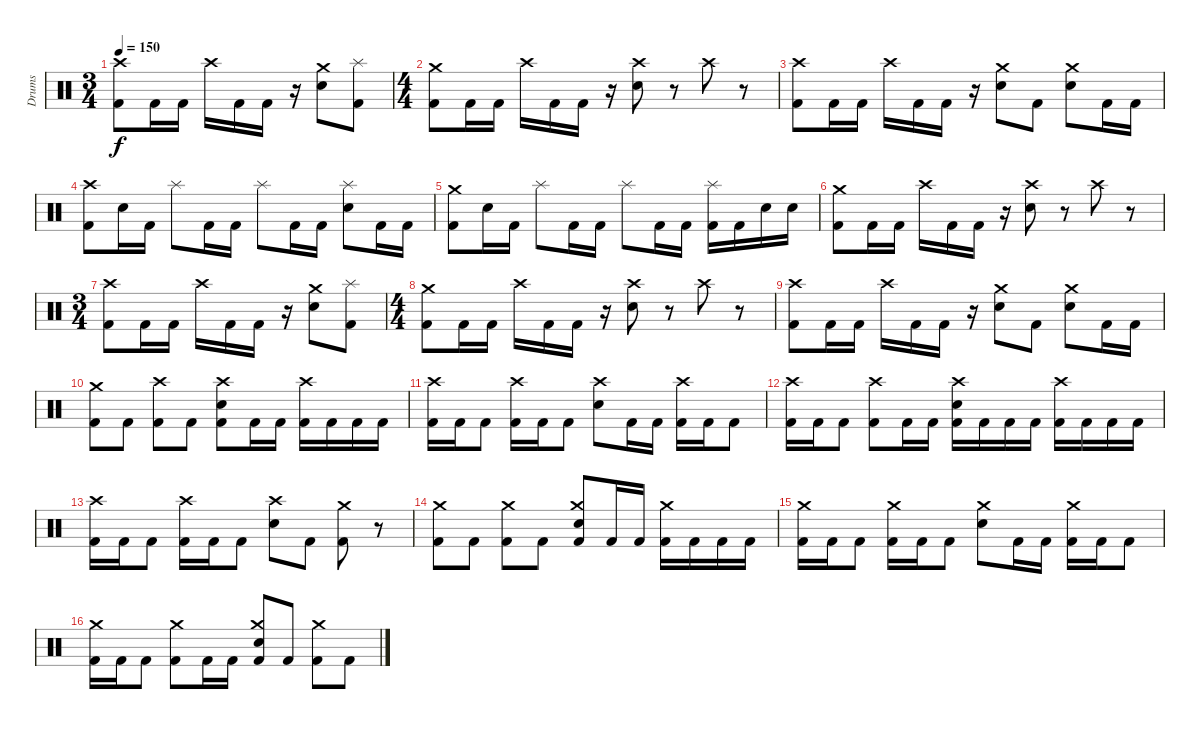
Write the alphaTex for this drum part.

\track ("Drums" "Drums") {instrument percussion}
\staff {score}
\articulation defaults
\ts (3 4)
\tempo 150
\clef neutral
\ks c
("Crash high (hit)" "Kick (hit) 2").8{dy f} "Kick (hit) 2".16 "Kick (hit) 2".16 "Crash high (hit)".16 "Kick (hit) 2".16 "Kick (hit) 2".16 r.16 ("Crash medium (hit)" "Electric Snare (hit)").8 ("Splash (hit)" "Kick (hit) 2").8 |
\ts (4 4)
("Crash medium (hit)" "Kick (hit) 2").8 "Kick (hit) 2".16 "Kick (hit) 2".16 "Crash high (hit)".16 "Kick (hit) 2".16 "Kick (hit) 2".16 r.16 ("Crash high (hit)" "Electric Snare (hit)").8 r.8 "Crash high (hit)".8 r.8 |
("Crash high (hit)" "Kick (hit) 2").8 "Kick (hit) 2".16 "Kick (hit) 2".16 "Crash high (hit)".16 "Kick (hit) 2".16 "Kick (hit) 2".16 r.16 ("Crash medium (hit)" "Electric Snare (hit)").8 "Kick (hit) 2".8 ("Crash medium (hit)" "Electric Snare (hit)").8 "Kick (hit) 2".16 "Kick (hit) 2".16 |
("Crash high (hit)" "Kick (hit) 2").8 "Electric Snare (hit)".16 "Kick (hit) 2".16 "Splash (hit)".8 "Kick (hit) 2".16 "Kick (hit) 2".16 "Splash (hit)".8 "Kick (hit) 2".16 "Kick (hit) 2".16 ("Splash (hit)" "Electric Snare (hit)").8 "Kick (hit) 2".16 "Kick (hit) 2".16 |
("Crash medium (hit)" "Kick (hit) 2").8 "Electric Snare (hit)".16 "Kick (hit) 2".16 "Splash (hit)".8 "Kick (hit) 2".16 "Kick (hit) 2".16 "Splash (hit)".8 "Kick (hit) 2".16 "Kick (hit) 2".16 ("Splash (hit)" "Kick (hit) 2").16 "Kick (hit) 2".16 "Electric Snare (hit)".16 "Electric Snare (hit)".16 |
("Crash medium (hit)" "Kick (hit) 2").8 "Kick (hit) 2".16 "Kick (hit) 2".16 "Crash high (hit)".16 "Kick (hit) 2".16 "Kick (hit) 2".16 r.16 ("Crash high (hit)" "Electric Snare (hit)").8 r.8 "Crash high (hit)".8 r.8 |
\ts (3 4)
("Crash high (hit)" "Kick (hit) 2").8 "Kick (hit) 2".16 "Kick (hit) 2".16 "Crash high (hit)".16 "Kick (hit) 2".16 "Kick (hit) 2".16 r.16 ("Crash medium (hit)" "Electric Snare (hit)").8 ("Splash (hit)" "Kick (hit) 2").8 |
\ts (4 4)
("Crash medium (hit)" "Kick (hit) 2").8 "Kick (hit) 2".16 "Kick (hit) 2".16 "Crash high (hit)".16 "Kick (hit) 2".16 "Kick (hit) 2".16 r.16 ("Crash high (hit)" "Electric Snare (hit)").8 r.8 "Crash high (hit)".8 r.8 |
("Crash high (hit)" "Kick (hit) 2").8 "Kick (hit) 2".16 "Kick (hit) 2".16 "Crash high (hit)".16 "Kick (hit) 2".16 "Kick (hit) 2".16 r.16 ("Crash medium (hit)" "Electric Snare (hit)").8 "Kick (hit) 2".8 ("Crash medium (hit)" "Electric Snare (hit)").8 "Kick (hit) 2".16 "Kick (hit) 2".16 |
("Crash medium (hit)" "Kick (hit) 2").8 "Kick (hit) 2".8 ("Crash high (hit)" "Kick (hit) 2").8 "Kick (hit) 2".8 ("Crash high (hit)" "Electric Snare (hit)" "Kick (hit) 2").8 "Kick (hit) 2".16 "Kick (hit) 2".16 ("Crash high (hit)" "Kick (hit) 2").16 "Kick (hit) 2".16 "Kick (hit) 2".16 "Kick (hit) 2".16 |
("Crash high (hit)" "Kick (hit) 2").16 "Kick (hit) 2".16 "Kick (hit) 2".8 ("Crash high (hit)" "Kick (hit) 2").16 "Kick (hit) 2".16 "Kick (hit) 2".8 ("Crash high (hit)" "Electric Snare (hit)").8 "Kick (hit) 2".16 "Kick (hit) 2".16 ("Crash high (hit)" "Kick (hit) 2").16 "Kick (hit) 2".16 "Kick (hit) 2".8 |
("Crash high (hit)" "Kick (hit) 2").16 "Kick (hit) 2".16 "Kick (hit) 2".8 ("Crash high (hit)" "Kick (hit) 2").8 "Kick (hit) 2".16 "Kick (hit) 2".16 ("Crash high (hit)" "Electric Snare (hit)" "Kick (hit) 2").16 "Kick (hit) 2".16 "Kick (hit) 2".16 "Kick (hit) 2".16 ("Crash high (hit)" "Kick (hit) 2").16 "Kick (hit) 2".16 "Kick (hit) 2".16 "Kick (hit) 2".16 |
("Crash high (hit)" "Kick (hit) 2").16 "Kick (hit) 2".16 "Kick (hit) 2".8 ("Crash high (hit)" "Kick (hit) 2").16 "Kick (hit) 2".16 "Kick (hit) 2".8 ("Crash high (hit)" "Electric Snare (hit)").8 "Kick (hit) 2".8 ("Crash medium (hit)" "Kick (hit) 2").8 r.8 |
("Crash medium (hit)" "Kick (hit) 2").8 "Kick (hit) 2".8 ("Crash medium (hit)" "Kick (hit) 2").8 "Kick (hit) 2".8 ("Crash medium (hit)" "Electric Snare (hit)" "Kick (hit) 2").8 "Kick (hit) 2".16 "Kick (hit) 2".16 ("Crash medium (hit)" "Kick (hit) 2").16 "Kick (hit) 2".16 "Kick (hit) 2".16 "Kick (hit) 2".16 |
("Crash medium (hit)" "Kick (hit) 2").16 "Kick (hit) 2".16 "Kick (hit) 2".8 ("Crash medium (hit)" "Kick (hit) 2").16 "Kick (hit) 2".16 "Kick (hit) 2".8 ("Crash medium (hit)" "Electric Snare (hit)").8 "Kick (hit) 2".16 "Kick (hit) 2".16 ("Crash medium (hit)" "Kick (hit) 2").16 "Kick (hit) 2".16 "Kick (hit) 2".8 |
("Crash medium (hit)" "Kick (hit) 2").16 "Kick (hit) 2".16 "Kick (hit) 2".8 ("Crash medium (hit)" "Kick (hit) 2").8 "Kick (hit) 2".16 "Kick (hit) 2".16 ("Crash medium (hit)" "Electric Snare (hit)" "Kick (hit) 2").8 "Kick (hit) 2".8 ("Crash medium (hit)" "Kick (hit) 2").8 "Kick (hit) 2".8
